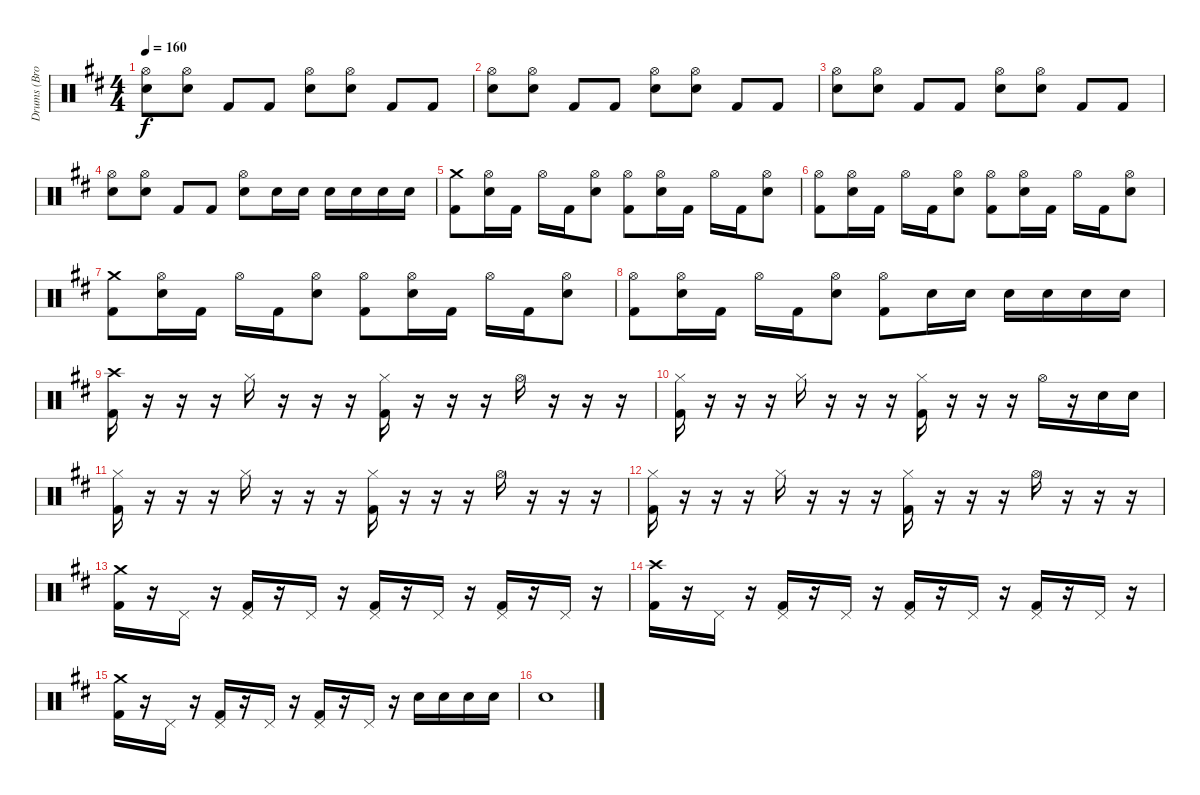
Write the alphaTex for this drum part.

\track ("Drums (Brooks Wackerman)" "Drums (Bro") {instrument percussion}
\staff {score}
\articulation defaults
\ts (4 4)
\tempo 160
\clef neutral
\ks d
("Hi-Hat (open)" "Snare (hit) 2").8{dy f} ("Hi-Hat (open)" "Snare (hit) 2").8 "Kick (hit) 2".8 "Kick (hit) 2".8 ("Hi-Hat (open)" "Snare (hit) 2").8 ("Hi-Hat (open)" "Snare (hit) 2").8 "Kick (hit) 2".8 "Kick (hit) 2".8 |
("Hi-Hat (open)" "Snare (hit) 2").8 ("Hi-Hat (open)" "Snare (hit) 2").8 "Kick (hit) 2".8 "Kick (hit) 2".8 ("Hi-Hat (open)" "Snare (hit) 2").8 ("Hi-Hat (open)" "Snare (hit) 2").8 "Kick (hit) 2".8 "Kick (hit) 2".8 |
("Hi-Hat (open)" "Snare (hit) 2").8 ("Hi-Hat (open)" "Snare (hit) 2").8 "Kick (hit) 2".8 "Kick (hit) 2".8 ("Hi-Hat (open)" "Snare (hit) 2").8 ("Hi-Hat (open)" "Snare (hit) 2").8 "Kick (hit) 2".8 "Kick (hit) 2".8 |
("Hi-Hat (open)" "Snare (hit) 2").8 ("Hi-Hat (open)" "Snare (hit) 2").8 "Kick (hit) 2".8 "Kick (hit) 2".8 ("Hi-Hat (open)" "Snare (hit) 2").8 "Snare (hit) 2".16 "Snare (hit) 2".16 "Snare (hit) 2".16 "Snare (hit) 2".16 "Snare (hit) 2".16 "Snare (hit) 2".16 |
("Crash medium (hit)" "Kick (hit) 2").8 ("Hi-Hat (open)" "Snare (hit) 2").16 "Kick (hit) 2".16 "Hi-Hat (open)".16 "Kick (hit) 2".16 ("Hi-Hat (open)" "Snare (hit) 2").8 ("Hi-Hat (open)" "Kick (hit) 2").8 ("Hi-Hat (open)" "Snare (hit) 2").16 "Kick (hit) 2".16 "Hi-Hat (open)".16 "Kick (hit) 2".16 ("Hi-Hat (open)" "Snare (hit) 2").8 |
("Hi-Hat (open)" "Kick (hit) 2").8 ("Hi-Hat (open)" "Snare (hit) 2").16 "Kick (hit) 2".16 "Hi-Hat (open)".16 "Kick (hit) 2".16 ("Hi-Hat (open)" "Snare (hit) 2").8 ("Hi-Hat (open)" "Kick (hit) 2").8 ("Hi-Hat (open)" "Snare (hit) 2").16 "Kick (hit) 2".16 "Hi-Hat (open)".16 "Kick (hit) 2".16 ("Hi-Hat (open)" "Snare (hit) 2").8 |
("Crash medium (hit)" "Kick (hit) 2").8 ("Hi-Hat (open)" "Snare (hit) 2").16 "Kick (hit) 2".16 "Hi-Hat (open)".16 "Kick (hit) 2".16 ("Hi-Hat (open)" "Snare (hit) 2").8 ("Hi-Hat (open)" "Kick (hit) 2").8 ("Hi-Hat (open)" "Snare (hit) 2").16 "Kick (hit) 2".16 "Hi-Hat (open)".16 "Kick (hit) 2".16 ("Hi-Hat (open)" "Snare (hit) 2").8 |
("Hi-Hat (open)" "Kick (hit) 2").8 ("Hi-Hat (open)" "Snare (hit) 2").16 "Kick (hit) 2".16 "Hi-Hat (open)".16 "Kick (hit) 2".16 ("Hi-Hat (open)" "Snare (hit) 2").8 ("Hi-Hat (open)" "Kick (hit) 2").8 "Snare (hit) 2".16 "Snare (hit) 2".16 "Snare (hit) 2".16 "Snare (hit) 2".16 "Snare (hit) 2".16 "Snare (hit) 2".16 |
("Crash high (hit)" "Kick (hit) 2").16 r.16 r.16 r.16 "Hi-Hat (closed)".16 r.16 r.16 r.16 ("Hi-Hat (closed)" "Kick (hit) 2").16 r.16 r.16 r.16 "Hi-Hat (open)".16 r.16 r.16 r.16 |
("Hi-Hat (closed)" "Kick (hit) 2").16 r.16 r.16 r.16 "Hi-Hat (closed)".16 r.16 r.16 r.16 ("Hi-Hat (closed)" "Kick (hit) 2").16 r.16 r.16 r.16 "Hi-Hat (open)".16 r.16 "Snare (hit) 2".16 "Snare (hit) 2".16 |
("Hi-Hat (closed)" "Kick (hit) 2").16 r.16 r.16 r.16 "Hi-Hat (closed)".16 r.16 r.16 r.16 ("Hi-Hat (closed)" "Kick (hit) 2").16 r.16 r.16 r.16 "Hi-Hat (open)".16 r.16 r.16 r.16 |
("Hi-Hat (closed)" "Kick (hit) 2").16 r.16 r.16 r.16 "Hi-Hat (closed)".16 r.16 r.16 r.16 ("Hi-Hat (closed)" "Kick (hit) 2").16 r.16 r.16 r.16 "Hi-Hat (open)".16 r.16 r.16 r.16 |
("Crash medium (hit)" "Kick (hit) 2").16 r.16 "Pedal Hi-Hat (hit)".16 r.16 ("Pedal Hi-Hat (hit)" "Kick (hit) 2").16 r.16 "Pedal Hi-Hat (hit)".16 r.16 ("Pedal Hi-Hat (hit)" "Kick (hit) 2").16 r.16 "Pedal Hi-Hat (hit)".16 r.16 ("Pedal Hi-Hat (hit)" "Kick (hit) 2").16 r.16 "Pedal Hi-Hat (hit)".16 r.16 |
("Crash high (hit)" "Kick (hit) 2").16 r.16 "Pedal Hi-Hat (hit)".16 r.16 ("Pedal Hi-Hat (hit)" "Kick (hit) 2").16 r.16 "Pedal Hi-Hat (hit)".16 r.16 ("Pedal Hi-Hat (hit)" "Kick (hit) 2").16 r.16 "Pedal Hi-Hat (hit)".16 r.16 ("Pedal Hi-Hat (hit)" "Kick (hit) 2").16 r.16 "Pedal Hi-Hat (hit)".16 r.16 |
("Crash medium (hit)" "Kick (hit) 2").16 r.16 "Pedal Hi-Hat (hit)".16 r.16 ("Pedal Hi-Hat (hit)" "Kick (hit) 2").16 r.16 "Pedal Hi-Hat (hit)".16 r.16 ("Pedal Hi-Hat (hit)" "Kick (hit) 2").16 r.16 "Pedal Hi-Hat (hit)".16 r.16 "Snare (hit) 2".16 "Snare (hit) 2".16 "Snare (hit) 2".16 "Snare (hit) 2".16 |
"Snare (hit) 2".1
